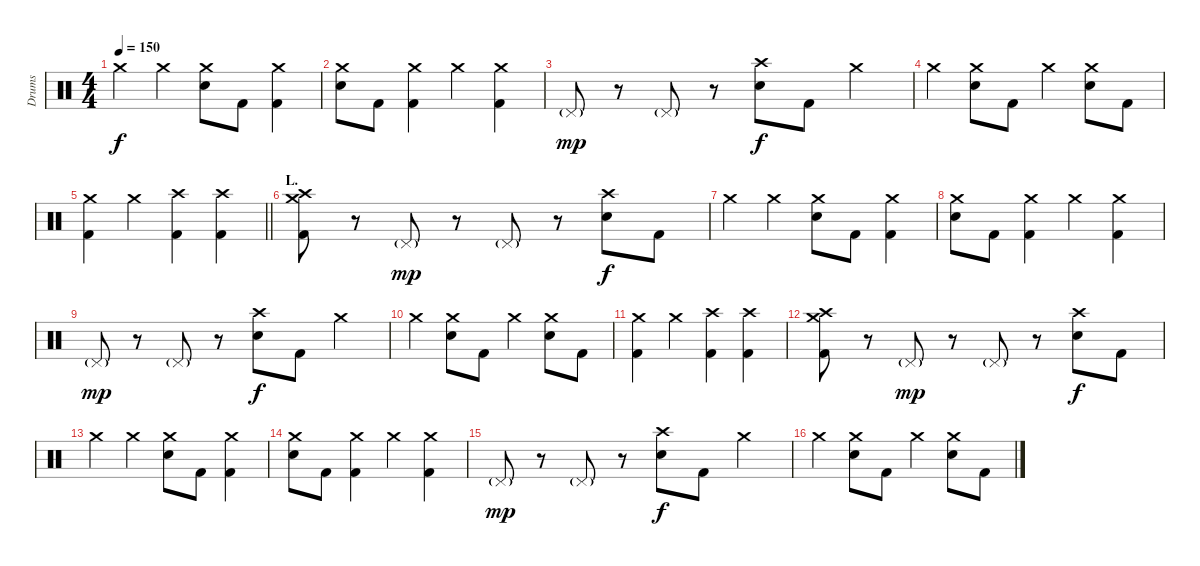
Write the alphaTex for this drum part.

\track ("Drums" "Drums") {instrument percussion}
\staff {score}
\articulation defaults
\ts (4 4)
\tempo 150
\clef neutral
\ks c "Crash medium (hit)".4{dy f} "Crash medium (hit)".4
("Crash medium (hit)" "Electric Snare (hit)").8 "Kick (hit) 2".8 ("Crash medium (hit)" "Kick (hit) 2").4 |
("Crash medium (hit)" "Electric Snare (hit)").8 "Kick (hit) 2".8 ("Crash medium (hit)" "Kick (hit) 2").4 "Crash medium (hit)".4 ("Crash medium (hit)" "Kick (hit) 2").4 |
"Pedal Hi-Hat (hit)"{g}.8{dy mp} r.8 "Pedal Hi-Hat (hit)"{g}.8 r.8 ("Crash high (hit)" "Electric Snare (hit)").8{dy f} "Kick (hit) 2".8 "Crash medium (hit)".4 |
"Crash medium (hit)".4 ("Crash medium (hit)" "Electric Snare (hit)").8 "Kick (hit) 2".8 "Crash medium (hit)".4 ("Crash medium (hit)" "Electric Snare (hit)").8 "Kick (hit) 2".8 |
\barLineRight lightlight
("Crash medium (hit)" "Kick (hit) 2").4 "Crash medium (hit)".4 ("Crash high (hit)" "Kick (hit) 2").4 ("Crash high (hit)" "Kick (hit) 2").4 |
\section ("" "L.")
("Crash medium (hit)" "Crash high (hit)" "Kick (hit) 2").8{volume 12} r.8 "Pedal Hi-Hat (hit)"{g}.8{dy mp} r.8 "Pedal Hi-Hat (hit)"{g}.8 r.8 ("Crash high (hit)" "Electric Snare (hit)").8{dy f} "Kick (hit) 2".8 |
"Crash medium (hit)".4 "Crash medium (hit)".4 ("Crash medium (hit)" "Electric Snare (hit)").8 "Kick (hit) 2".8 ("Crash medium (hit)" "Kick (hit) 2").4 |
("Crash medium (hit)" "Electric Snare (hit)").8 "Kick (hit) 2".8 ("Crash medium (hit)" "Kick (hit) 2").4 "Crash medium (hit)".4 ("Crash medium (hit)" "Kick (hit) 2").4 |
"Pedal Hi-Hat (hit)"{g}.8{dy mp} r.8 "Pedal Hi-Hat (hit)"{g}.8 r.8 ("Crash high (hit)" "Electric Snare (hit)").8{dy f} "Kick (hit) 2".8 "Crash medium (hit)".4 |
"Crash medium (hit)".4 ("Crash medium (hit)" "Electric Snare (hit)").8 "Kick (hit) 2".8 "Crash medium (hit)".4 ("Crash medium (hit)" "Electric Snare (hit)").8 "Kick (hit) 2".8 |
("Crash medium (hit)" "Kick (hit) 2").4 "Crash medium (hit)".4 ("Crash high (hit)" "Kick (hit) 2").4 ("Crash high (hit)" "Kick (hit) 2").4 |
("Crash medium (hit)" "Crash high (hit)" "Kick (hit) 2").8{volume 8} r.8 "Pedal Hi-Hat (hit)"{g}.8{dy mp} r.8 "Pedal Hi-Hat (hit)"{g}.8 r.8 ("Crash high (hit)" "Electric Snare (hit)").8{dy f} "Kick (hit) 2".8 |
"Crash medium (hit)".4 "Crash medium (hit)".4 ("Crash medium (hit)" "Electric Snare (hit)").8 "Kick (hit) 2".8 ("Crash medium (hit)" "Kick (hit) 2").4 |
("Crash medium (hit)" "Electric Snare (hit)").8 "Kick (hit) 2".8 ("Crash medium (hit)" "Kick (hit) 2").4 "Crash medium (hit)".4 ("Crash medium (hit)" "Kick (hit) 2").4 |
"Pedal Hi-Hat (hit)"{g}.8{dy mp} r.8 "Pedal Hi-Hat (hit)"{g}.8 r.8 ("Crash high (hit)" "Electric Snare (hit)").8{dy f} "Kick (hit) 2".8 "Crash medium (hit)".4 |
"Crash medium (hit)".4 ("Crash medium (hit)" "Electric Snare (hit)").8 "Kick (hit) 2".8 "Crash medium (hit)".4 ("Crash medium (hit)" "Electric Snare (hit)").8 "Kick (hit) 2".8
